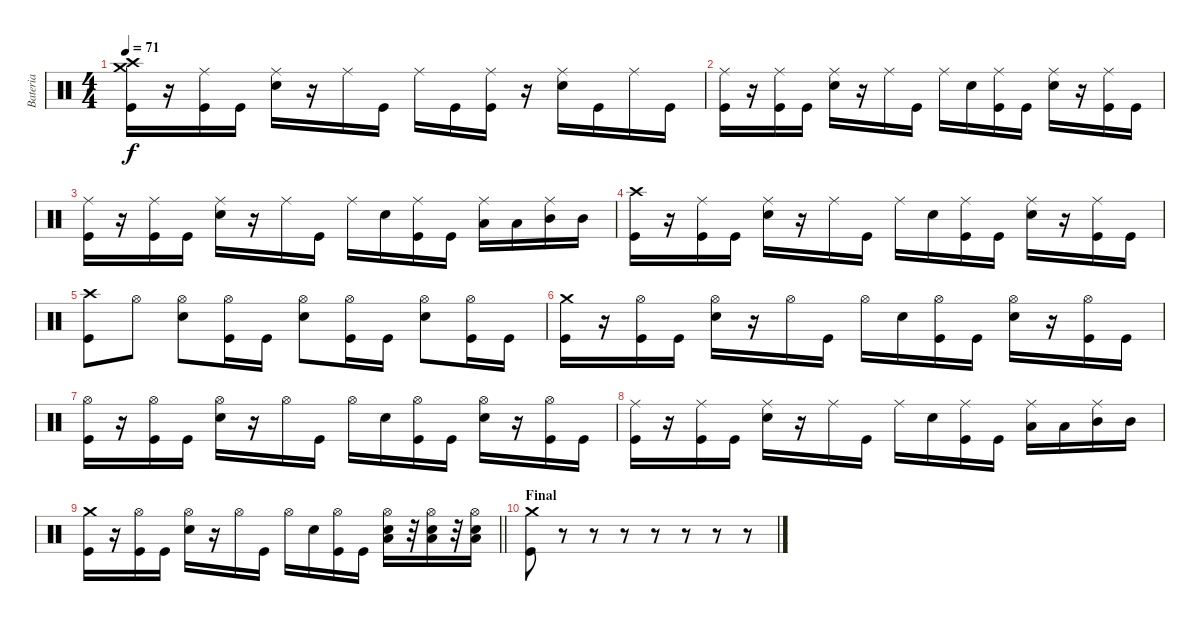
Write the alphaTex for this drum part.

\track ("Bateria" "Bateria") {instrument percussion}
\staff {score}
\articulation defaults
\ts (4 4)
\tempo 71
\clef neutral
\ks c
("Crash high (hit)" "Crash medium (hit)" "Kick (hit)").16{dy f} r.16 ("Ride (middle)" "Kick (hit)").16 "Kick (hit)".16 ("Ride (middle)" "Snare (hit) 2").16 r.16 "Ride (middle)".16 "Kick (hit)".16 "Ride (middle)".16 "Kick (hit)".16 ("Ride (middle)" "Kick (hit)").16 r.16 ("Ride (middle)" "Snare (hit) 2").16 "Kick (hit)".16 "Ride (middle)".16 "Kick (hit)".16 |
("Ride (middle)" "Kick (hit)").16 r.16 ("Ride (middle)" "Kick (hit)").16 "Kick (hit)".16 ("Ride (middle)" "Snare (hit) 2").16 r.16 "Ride (middle)".16 "Kick (hit)".16 "Ride (middle)".16 "Snare (hit) 2".16 ("Ride (middle)" "Kick (hit)").16 "Kick (hit)".16 ("Ride (middle)" "Snare (hit) 2").16 r.16 ("Ride (middle)" "Kick (hit)").16 "Kick (hit)".16 |
("Ride (middle)" "Kick (hit)").16 r.16 ("Ride (middle)" "Kick (hit)").16 "Kick (hit)".16 ("Ride (middle)" "Snare (hit) 2").16 r.16 "Ride (middle)".16 "Kick (hit)".16 "Ride (middle)".16 "Snare (hit) 2".16 ("Ride (middle)" "Kick (hit)").16 "Kick (hit)".16 ("Ride (middle)" "Low Tom (hit)").16 "Low Tom (hit)".16 ("Ride (middle)" "Mid Tom (hit)").16 "Mid Tom (hit)".16 |
("Crash high (hit)" "Kick (hit)").16 r.16 ("Ride (middle)" "Kick (hit)").16 "Kick (hit)".16 ("Ride (middle)" "Snare (hit) 2").16 r.16 "Ride (middle)".16 "Kick (hit)".16 "Ride (middle)".16 "Snare (hit) 2".16 ("Ride (middle)" "Kick (hit)").16 "Kick (hit)".16 ("Ride (middle)" "Snare (hit) 2").16 r.16 ("Ride (middle)" "Kick (hit)").16 "Kick (hit)".16 |
("Crash high (hit)" "Kick (hit)").8 "Hi-Hat (open)".8 ("Hi-Hat (open)" "Snare (hit) 2").8 ("Hi-Hat (open)" "Kick (hit)").16 "Kick (hit)".16 ("Hi-Hat (open)" "Snare (hit) 2").8 ("Hi-Hat (open)" "Kick (hit)").16 "Kick (hit)".16 ("Hi-Hat (open)" "Snare (hit) 2").8 ("Hi-Hat (open)" "Kick (hit)").16 "Kick (hit)".16 |
("Crash medium (hit)" "Kick (hit)").16 r.16 ("Hi-Hat (open)" "Kick (hit)").16 "Kick (hit)".16 ("Hi-Hat (open)" "Snare (hit) 2").16 r.16 "Hi-Hat (open)".16 "Kick (hit)".16 "Hi-Hat (open)".16 "Snare (hit) 2".16 ("Hi-Hat (open)" "Kick (hit)").16 "Kick (hit)".16 ("Hi-Hat (open)" "Snare (hit) 2").16 r.16 ("Hi-Hat (open)" "Kick (hit)").16 "Kick (hit)".16 |
("Hi-Hat (open)" "Kick (hit)").16 r.16 ("Hi-Hat (open)" "Kick (hit)").16 "Kick (hit)".16 ("Hi-Hat (open)" "Snare (hit) 2").16 r.16 "Hi-Hat (open)".16 "Kick (hit)".16 "Hi-Hat (open)".16 "Snare (hit) 2".16 ("Hi-Hat (open)" "Kick (hit)").16 "Kick (hit)".16 ("Hi-Hat (open)" "Snare (hit) 2").16 r.16 ("Hi-Hat (open)" "Kick (hit)").16 "Kick (hit)".16 |
("Ride (middle)" "Kick (hit)").16 r.16 ("Ride (middle)" "Kick (hit)").16 "Kick (hit)".16 ("Ride (middle)" "Snare (hit) 2").16 r.16 "Ride (middle)".16 "Kick (hit)".16 "Ride (middle)".16 "Snare (hit) 2".16 ("Ride (middle)" "Kick (hit)").16 "Kick (hit)".16 ("Ride (middle)" "Low Tom (hit)").16 "Low Tom (hit)".16 ("Ride (middle)" "Mid Tom (hit)").16 "Mid Tom (hit)".16 |
\barLineRight lightlight
("Crash medium (hit)" "Kick (hit)").16 r.16 ("Hi-Hat (open)" "Kick (hit)").16 "Kick (hit)".16 ("Hi-Hat (open)" "Snare (hit) 2").16 r.16 "Hi-Hat (open)".16 "Kick (hit)".16 "Hi-Hat (open)".16 "Snare (hit) 2".16 ("Hi-Hat (open)" "Kick (hit)").16 "Kick (hit)".16 ("Hi-Hat (open)" "Low Tom (hit)" "Snare (hit) 2").16 r.32 ("Hi-Hat (open)" "Low Tom (hit)" "Snare (hit) 2").16 r.32 ("Hi-Hat (open)" "Low Tom (hit)" "Snare (hit) 2").16 |
\section ("" "Final")
("Crash medium (hit)" "Kick (hit)").8 r.8 r.8 r.8 r.8 r.8 r.8 r.8
